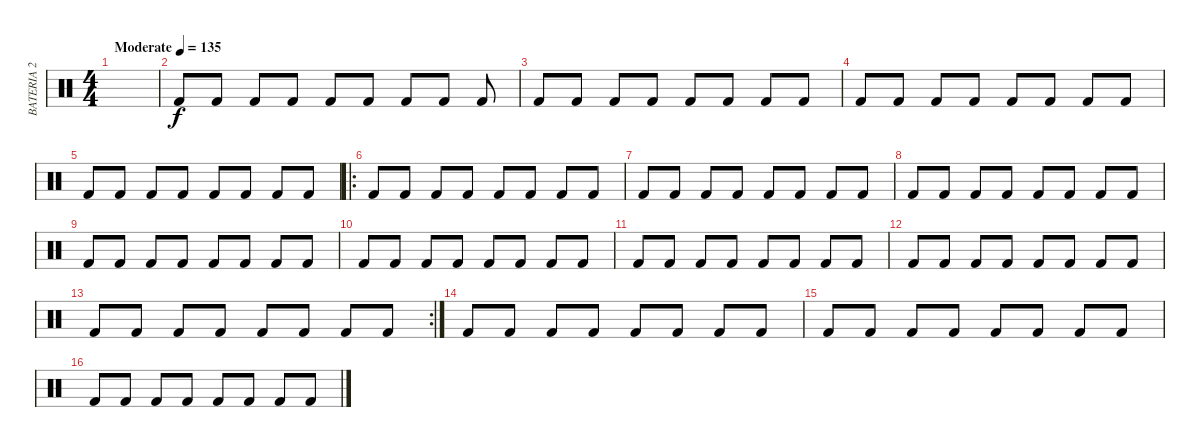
\track ("BATERIA 2" "BATERIA 2") {instrument percussion}
\staff {score}
\articulation defaults
\ts (4 4)
\tempo (135 "Moderate")
\clef neutral
\ks c
|
"Kick (hit) 2".8 "Kick (hit) 2".8 "Kick (hit) 2".8 "Kick (hit) 2".8 "Kick (hit) 2".8 "Kick (hit) 2".8 "Kick (hit) 2".8 "Kick (hit) 2".8 "Kick (hit) 2".8 |
"Kick (hit) 2".8 "Kick (hit) 2".8 "Kick (hit) 2".8 "Kick (hit) 2".8 "Kick (hit) 2".8 "Kick (hit) 2".8 "Kick (hit) 2".8 "Kick (hit) 2".8 |
"Kick (hit) 2".8 "Kick (hit) 2".8 "Kick (hit) 2".8 "Kick (hit) 2".8 "Kick (hit) 2".8 "Kick (hit) 2".8 "Kick (hit) 2".8 "Kick (hit) 2".8 |
"Kick (hit) 2".8 "Kick (hit) 2".8 "Kick (hit) 2".8 "Kick (hit) 2".8 "Kick (hit) 2".8 "Kick (hit) 2".8 "Kick (hit) 2".8 "Kick (hit) 2".8 |
\ro "Kick (hit) 2".8 "Kick (hit) 2".8 "Kick (hit) 2".8 "Kick (hit) 2".8 "Kick (hit) 2".8 "Kick (hit) 2".8 "Kick (hit) 2".8 "Kick (hit) 2".8
|
"Kick (hit) 2".8 "Kick (hit) 2".8 "Kick (hit) 2".8 "Kick (hit) 2".8 "Kick (hit) 2".8 "Kick (hit) 2".8 "Kick (hit) 2".8 "Kick (hit) 2".8 |
"Kick (hit) 2".8 "Kick (hit) 2".8 "Kick (hit) 2".8 "Kick (hit) 2".8 "Kick (hit) 2".8 "Kick (hit) 2".8 "Kick (hit) 2".8 "Kick (hit) 2".8 |
"Kick (hit) 2".8 "Kick (hit) 2".8 "Kick (hit) 2".8 "Kick (hit) 2".8 "Kick (hit) 2".8 "Kick (hit) 2".8 "Kick (hit) 2".8 "Kick (hit) 2".8 |
"Kick (hit) 2".8 "Kick (hit) 2".8 "Kick (hit) 2".8 "Kick (hit) 2".8 "Kick (hit) 2".8 "Kick (hit) 2".8 "Kick (hit) 2".8 "Kick (hit) 2".8 |
"Kick (hit) 2".8 "Kick (hit) 2".8 "Kick (hit) 2".8 "Kick (hit) 2".8 "Kick (hit) 2".8 "Kick (hit) 2".8 "Kick (hit) 2".8 "Kick (hit) 2".8 |
"Kick (hit) 2".8 "Kick (hit) 2".8 "Kick (hit) 2".8 "Kick (hit) 2".8 "Kick (hit) 2".8 "Kick (hit) 2".8 "Kick (hit) 2".8 "Kick (hit) 2".8 |
\rc 2 "Kick (hit) 2".8 "Kick (hit) 2".8 "Kick (hit) 2".8 "Kick (hit) 2".8 "Kick (hit) 2".8 "Kick (hit) 2".8 "Kick (hit) 2".8 "Kick (hit) 2".8
|
"Kick (hit) 2".8 "Kick (hit) 2".8 "Kick (hit) 2".8 "Kick (hit) 2".8 "Kick (hit) 2".8 "Kick (hit) 2".8 "Kick (hit) 2".8 "Kick (hit) 2".8 |
"Kick (hit) 2".8 "Kick (hit) 2".8 "Kick (hit) 2".8 "Kick (hit) 2".8 "Kick (hit) 2".8 "Kick (hit) 2".8 "Kick (hit) 2".8 "Kick (hit) 2".8 |
"Kick (hit) 2".8 "Kick (hit) 2".8 "Kick (hit) 2".8 "Kick (hit) 2".8 "Kick (hit) 2".8 "Kick (hit) 2".8 "Kick (hit) 2".8 "Kick (hit) 2".8
